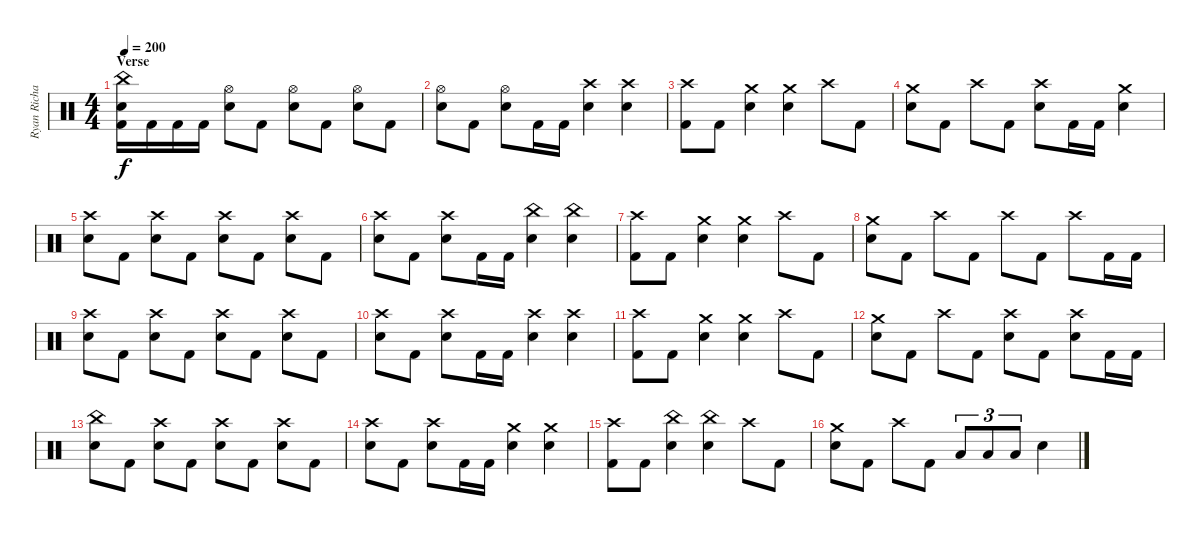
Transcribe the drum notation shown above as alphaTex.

\track ("Ryan Richards" "Ryan Richa") {instrument percussion}
\staff {score}
\articulation defaults
\ts (4 4)
\section ("" "Verse")
\tempo 200
\clef neutral
\ks c
("China (hit)" "Electric Snare (hit)" "Kick (hit) 2").16{dy f} "Kick (hit) 2".16 "Kick (hit) 2".16 "Kick (hit) 2".16 ("Hi-Hat (open)" "Electric Snare (hit)").8 "Kick (hit) 2".8 ("Hi-Hat (open)" "Electric Snare (hit)").8 "Kick (hit) 2".8 ("Hi-Hat (open)" "Electric Snare (hit)").8 "Kick (hit) 2".8 |
("Hi-Hat (open)" "Electric Snare (hit)").8 "Kick (hit) 2".8 ("Hi-Hat (open)" "Electric Snare (hit)").8 "Kick (hit) 2".16 "Kick (hit) 2".16 ("Crash high (hit)" "Electric Snare (hit)").4 ("Crash high (hit)" "Electric Snare (hit)").4 |
("Crash high (hit)" "Kick (hit) 2").8 "Kick (hit) 2".8 ("Crash medium (hit)" "Electric Snare (hit)").4 ("Crash medium (hit)" "Electric Snare (hit)").4 "Crash high (hit)".8 "Kick (hit) 2".8 |
("Crash medium (hit)" "Electric Snare (hit)").8 "Kick (hit) 2".8 "Crash high (hit)".8 "Kick (hit) 2".8 ("Crash high (hit)" "Electric Snare (hit)").8 "Kick (hit) 2".16 "Kick (hit) 2".16 ("Crash medium (hit)" "Electric Snare (hit)").4 |
("Crash high (hit)" "Electric Snare (hit)").8 "Kick (hit) 2".8 ("Crash high (hit)" "Electric Snare (hit)").8 "Kick (hit) 2".8 ("Crash high (hit)" "Electric Snare (hit)").8 "Kick (hit) 2".8 ("Crash high (hit)" "Electric Snare (hit)").8 "Kick (hit) 2".8 |
("Crash high (hit)" "Electric Snare (hit)").8 "Kick (hit) 2".8 ("Crash high (hit)" "Electric Snare (hit)").8 "Kick (hit) 2".16 "Kick (hit) 2".16 ("China (hit)" "Electric Snare (hit)").4 ("China (hit)" "Electric Snare (hit)").4 |
("Crash high (hit)" "Kick (hit) 2").8 "Kick (hit) 2".8 ("Crash medium (hit)" "Electric Snare (hit)").4 ("Crash medium (hit)" "Electric Snare (hit)").4 "Crash high (hit)".8 "Kick (hit) 2".8 |
("Crash medium (hit)" "Electric Snare (hit)").8 "Kick (hit) 2".8 "Crash high (hit)".8 "Kick (hit) 2".8 "Crash high (hit)".8 "Kick (hit) 2".8 "Crash high (hit)".8 "Kick (hit) 2".16 "Kick (hit) 2".16 |
("Crash high (hit)" "Electric Snare (hit)").8 "Kick (hit) 2".8 ("Crash high (hit)" "Electric Snare (hit)").8 "Kick (hit) 2".8 ("Crash high (hit)" "Electric Snare (hit)").8 "Kick (hit) 2".8 ("Crash high (hit)" "Electric Snare (hit)").8 "Kick (hit) 2".8 |
("Crash high (hit)" "Electric Snare (hit)").8 "Kick (hit) 2".8 ("Crash high (hit)" "Electric Snare (hit)").8 "Kick (hit) 2".16 "Kick (hit) 2".16 ("Crash high (hit)" "Electric Snare (hit)").4 ("Crash high (hit)" "Electric Snare (hit)").4 |
("Crash high (hit)" "Kick (hit) 2").8 "Kick (hit) 2".8 ("Crash medium (hit)" "Electric Snare (hit)").4 ("Crash medium (hit)" "Electric Snare (hit)").4 "Crash high (hit)".8 "Kick (hit) 2".8 |
("Crash medium (hit)" "Electric Snare (hit)").8 "Kick (hit) 2".8 "Crash high (hit)".8 "Kick (hit) 2".8 ("Crash high (hit)" "Electric Snare (hit)").8 "Kick (hit) 2".8 ("Crash high (hit)" "Electric Snare (hit)").8 "Kick (hit) 2".16 "Kick (hit) 2".16 |
("China (hit)" "Electric Snare (hit)").8 "Kick (hit) 2".8 ("Crash high (hit)" "Electric Snare (hit)").8 "Kick (hit) 2".8 ("Crash high (hit)" "Electric Snare (hit)").8 "Kick (hit) 2".8 ("Crash high (hit)" "Electric Snare (hit)").8 "Kick (hit) 2".8 |
("Crash high (hit)" "Electric Snare (hit)").8 "Kick (hit) 2".8 ("Crash high (hit)" "Electric Snare (hit)").8 "Kick (hit) 2".16 "Kick (hit) 2".16 ("Crash medium (hit)" "Electric Snare (hit)").4 ("Crash medium (hit)" "Electric Snare (hit)").4 |
("Crash high (hit)" "Kick (hit) 2").8 "Kick (hit) 2".8 ("China (hit)" "Electric Snare (hit)").4 ("China (hit)" "Electric Snare (hit)").4 "Crash high (hit)".8 "Kick (hit) 2".8 |
("Crash medium (hit)" "Electric Snare (hit)").8 "Kick (hit) 2".8 "Crash high (hit)".8 "Kick (hit) 2".8 "Low Tom (hit)".8{tu (3 2)} "Low Tom (hit)".8{tu (3 2)} "Low Tom (hit)".8{tu (3 2)} "Electric Snare (hit)".4
